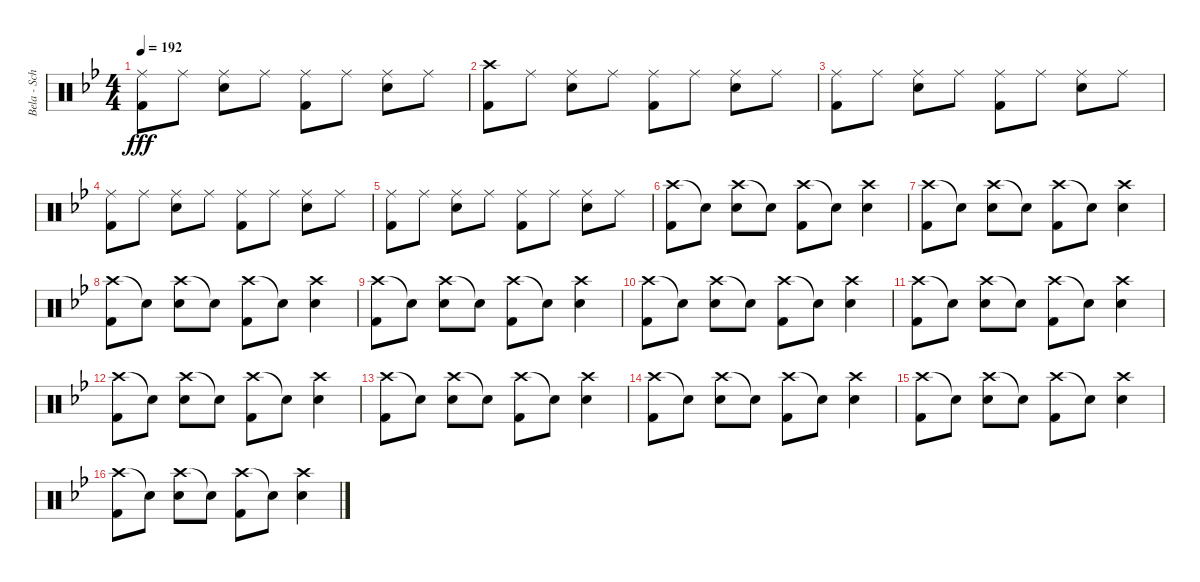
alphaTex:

\track ("Bela - Schlagzeug" "Bela - Sch") {instrument percussion}
\staff {score}
\articulation defaults
\ts (4 4)
\tempo 192
\clef neutral
\ks bb
("Ride (middle)" "Kick (hit) 2").8{dy fff} "Ride (middle)".8 ("Ride (middle)" "Snare (hit) 2").8 "Ride (middle)".8 ("Ride (middle)" "Kick (hit) 2").8 "Ride (middle)".8 ("Ride (middle)" "Snare (hit) 2").8 "Ride (middle)".8 |
("Crash high (hit)" "Kick (hit) 2").8 "Ride (middle)".8 ("Ride (middle)" "Snare (hit) 2").8 "Ride (middle)".8 ("Ride (middle)" "Kick (hit) 2").8 "Ride (middle)".8 ("Ride (middle)" "Snare (hit) 2").8 "Ride (middle)".8 |
("Ride (middle)" "Kick (hit) 2").8 "Ride (middle)".8 ("Ride (middle)" "Snare (hit) 2").8 "Ride (middle)".8 ("Ride (middle)" "Kick (hit) 2").8 "Ride (middle)".8 ("Ride (middle)" "Snare (hit) 2").8 "Ride (middle)".8 |
("Ride (middle)" "Kick (hit) 2").8 "Ride (middle)".8 ("Ride (middle)" "Snare (hit) 2").8 "Ride (middle)".8 ("Ride (middle)" "Kick (hit) 2").8 "Ride (middle)".8 ("Ride (middle)" "Snare (hit) 2").8 "Ride (middle)".8 |
("Ride (middle)" "Kick (hit) 2").8 "Ride (middle)".8 ("Ride (middle)" "Snare (hit) 2").8 "Ride (middle)".8 ("Ride (middle)" "Kick (hit) 2").8 "Ride (middle)".8 ("Ride (middle)" "Snare (hit) 2").8 "Ride (middle)".8 |
("Crash high (hit)" "Kick (hit) 2").8 "Snare (hit)"{t}.8 ("Crash high (hit)" "Snare (hit) 2").8 "Snare (hit)"{t}.8 ("Crash high (hit)" "Kick (hit) 2").8 "Snare (hit)"{t}.8 ("Crash high (hit)" "Snare (hit) 2").4 |
("Crash high (hit)" "Kick (hit) 2").8 "Snare (hit)"{t}.8 ("Crash high (hit)" "Snare (hit) 2").8 "Snare (hit)"{t}.8 ("Crash high (hit)" "Kick (hit) 2").8 "Snare (hit)"{t}.8 ("Crash high (hit)" "Snare (hit) 2").4 |
("Crash high (hit)" "Kick (hit) 2").8 "Snare (hit)"{t}.8 ("Crash high (hit)" "Snare (hit) 2").8 "Snare (hit)"{t}.8 ("Crash high (hit)" "Kick (hit) 2").8 "Snare (hit)"{t}.8 ("Crash high (hit)" "Snare (hit) 2").4 |
("Crash high (hit)" "Kick (hit) 2").8 "Snare (hit)"{t}.8 ("Crash high (hit)" "Snare (hit) 2").8 "Snare (hit)"{t}.8 ("Crash high (hit)" "Kick (hit) 2").8 "Snare (hit)"{t}.8 ("Crash high (hit)" "Snare (hit) 2").4 |
("Crash high (hit)" "Kick (hit) 2").8 "Snare (hit)"{t}.8 ("Crash high (hit)" "Snare (hit) 2").8 "Snare (hit)"{t}.8 ("Crash high (hit)" "Kick (hit) 2").8 "Snare (hit)"{t}.8 ("Crash high (hit)" "Snare (hit) 2").4 |
("Crash high (hit)" "Kick (hit) 2").8 "Snare (hit)"{t}.8 ("Crash high (hit)" "Snare (hit) 2").8 "Snare (hit)"{t}.8 ("Crash high (hit)" "Kick (hit) 2").8 "Snare (hit)"{t}.8 ("Crash high (hit)" "Snare (hit) 2").4 |
("Crash high (hit)" "Kick (hit) 2").8 "Snare (hit)"{t}.8 ("Crash high (hit)" "Snare (hit) 2").8 "Snare (hit)"{t}.8 ("Crash high (hit)" "Kick (hit) 2").8 "Snare (hit)"{t}.8 ("Crash high (hit)" "Snare (hit) 2").4 |
("Crash high (hit)" "Kick (hit) 2").8 "Snare (hit)"{t}.8 ("Crash high (hit)" "Snare (hit) 2").8 "Snare (hit)"{t}.8 ("Crash high (hit)" "Kick (hit) 2").8 "Snare (hit)"{t}.8 ("Crash high (hit)" "Snare (hit) 2").4 |
("Crash high (hit)" "Kick (hit) 2").8 "Snare (hit)"{t}.8 ("Crash high (hit)" "Snare (hit) 2").8 "Snare (hit)"{t}.8 ("Crash high (hit)" "Kick (hit) 2").8 "Snare (hit)"{t}.8 ("Crash high (hit)" "Snare (hit) 2").4 |
("Crash high (hit)" "Kick (hit) 2").8 "Snare (hit)"{t}.8 ("Crash high (hit)" "Snare (hit) 2").8 "Snare (hit)"{t}.8 ("Crash high (hit)" "Kick (hit) 2").8 "Snare (hit)"{t}.8 ("Crash high (hit)" "Snare (hit) 2").4 |
("Crash high (hit)" "Kick (hit) 2").8 "Snare (hit)"{t}.8 ("Crash high (hit)" "Snare (hit) 2").8 "Snare (hit)"{t}.8 ("Crash high (hit)" "Kick (hit) 2").8 "Snare (hit)"{t}.8 ("Crash high (hit)" "Snare (hit) 2").4
